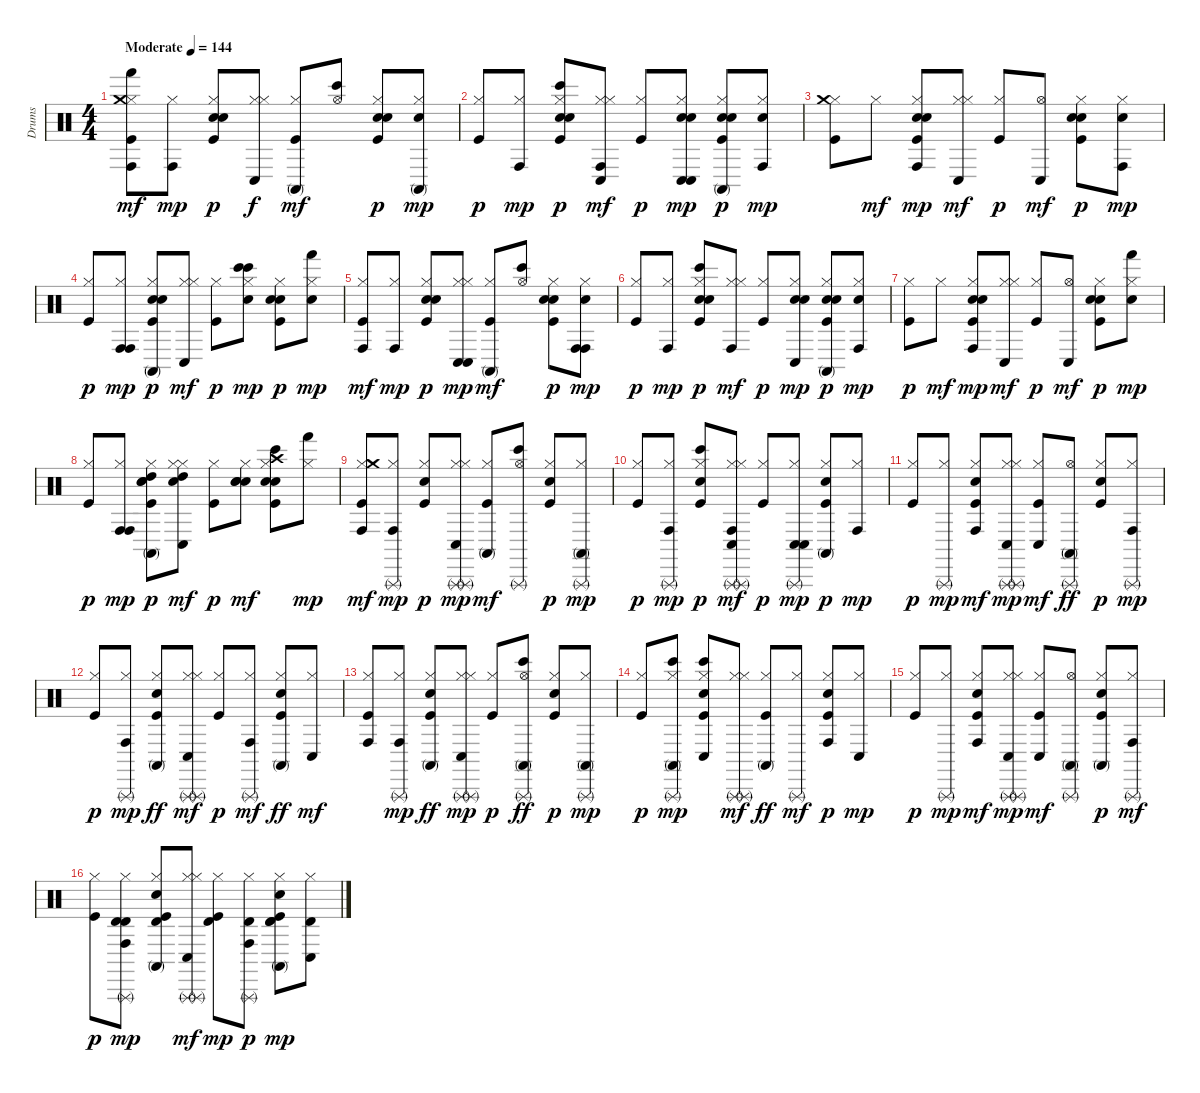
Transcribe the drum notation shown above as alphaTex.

\track ("Drums" "Drums") {instrument percussion}
\staff {score}
\articulation defaults
\ts (4 4)
\tempo (144 "Moderate")
\clef neutral
\ks c
("Hand (hit)" "Kick (hit)" "Hi-Hat (closed)" "Crash medium (hit)" "Conga high (hit)").8{dy mf} ("Hi-Hat (closed)" "Conga high (hit)").8{dy mp} ("Kick (hit)" "Snare (hit) 2" "Hand Clap (hit)" "Hi-Hat (closed)").8{dy p} ("Hi-Hat (closed)" "Conga low (hit)" "Hi-Hat (closed)").8{dy f} ("Kick (hit)" "Hi-Hat (closed)" "Conga high (mute)").8{dy mf} ("Hi-Hat (open)" "Bongo High (hit)").8 ("Kick (hit)" "Snare (hit) 2" "Hand Clap (hit)" "Hi-Hat (closed)").8{dy p} ("Hand Clap (hit)" "Hi-Hat (closed)" "Conga high (mute)").8{dy mp} |
("Kick (hit)" "Hi-Hat (closed)").8{dy p} ("Hi-Hat (closed)" "Conga high (hit)").8{dy mp} ("Kick (hit)" "Snare (hit) 2" "Hand Clap (hit)" "Hi-Hat (closed)" "Bongo High (hit)").8{dy p} ("Hi-Hat (closed)" "Conga high (hit)" "Hi-Hat (closed)" "Conga low (hit)").8{dy mf} ("Kick (hit)" "Hi-Hat (closed)").8{dy p} ("Hand Clap (hit)" "Hi-Hat (closed)" "Conga low (hit)" "Hand Clap (hit)" "Conga low (hit)").8{dy mp} ("Kick (hit)" "Snare (hit) 2" "Hand Clap (hit)" "Hi-Hat (closed)" "Conga high (mute)").8{dy p} ("Hand Clap (hit)" "Hi-Hat (closed)" "Conga high (hit)").8{dy mp} |
("Kick (hit)" "Hi-Hat (closed)" "Crash medium (hit)").8 "Hi-Hat (closed)".8{dy mf} ("Kick (hit)" "Snare (hit) 2" "Hand Clap (hit)" "Hi-Hat (closed)" "Conga high (hit)").8{dy mp} ("Hi-Hat (closed)" "Conga low (hit)" "Hi-Hat (closed)").8{dy mf} ("Kick (hit)" "Hi-Hat (closed)").8{dy p} ("Hi-Hat (open)" "Conga low (hit)").8{dy mf} ("Kick (hit)" "Snare (hit) 2" "Hand Clap (hit)" "Hi-Hat (closed)").8{dy p} ("Hand Clap (hit)" "Hi-Hat (closed)" "Conga high (hit)").8{dy mp} |
("Kick (hit)" "Hi-Hat (closed)").8{dy p} ("Hi-Hat (closed)" "Conga high (hit)" "Conga high (hit)").8{dy mp} ("Kick (hit)" "Snare (hit) 2" "Hand Clap (hit)" "Hi-Hat (closed)" "Conga high (mute)").8{dy p} ("Hi-Hat (closed)" "Conga low (hit)" "Hi-Hat (closed)").8{dy mf} ("Kick (hit)" "Hi-Hat (closed)").8{dy p} ("Hand Clap (hit)" "Hi-Hat (closed)" "Bongo High (hit)" "Bongo High (hit)").8{dy mp} ("Kick (hit)" "Snare (hit) 2" "Hand Clap (hit)" "Hi-Hat (closed)").8{dy p} ("Hand Clap (hit)" "Hi-Hat (closed)" "Hand (hit)").8{dy mp} |
("Kick (hit)" "Hi-Hat (closed)" "Conga high (hit)").8{dy mf} ("Hi-Hat (closed)" "Conga high (hit)").8{dy mp} ("Kick (hit)" "Snare (hit) 2" "Hand Clap (hit)" "Hi-Hat (closed)").8{dy p} ("Hi-Hat (closed)" "Conga low (hit)" "Hi-Hat (closed)" "Conga low (hit)").8{dy mp} ("Kick (hit)" "Hi-Hat (closed)" "Conga high (mute)").8{dy mf} ("Hi-Hat (open)" "Bongo High (hit)").8 ("Kick (hit)" "Snare (hit) 2" "Hand Clap (hit)" "Hi-Hat (closed)").8{dy p} ("Hand Clap (hit)" "Hi-Hat (closed)" "Conga high (hit)" "Conga high (hit)").8{dy mp} |
("Kick (hit)" "Hi-Hat (closed)").8{dy p} ("Hi-Hat (closed)" "Conga high (hit)").8{dy mp} ("Kick (hit)" "Snare (hit) 2" "Hand Clap (hit)" "Hi-Hat (closed)" "Bongo High (hit)").8{dy p} ("Hi-Hat (closed)" "Conga high (hit)" "Hi-Hat (closed)").8{dy mf} ("Kick (hit)" "Hi-Hat (closed)").8{dy p} ("Hand Clap (hit)" "Hi-Hat (closed)" "Conga low (hit)" "Hand Clap (hit)").8{dy mp} ("Kick (hit)" "Snare (hit) 2" "Hand Clap (hit)" "Hi-Hat (closed)" "Conga high (mute)").8{dy p} ("Hand Clap (hit)" "Hi-Hat (closed)" "Conga high (hit)").8{dy mp} |
("Kick (hit)" "Hi-Hat (closed)").8{dy p} "Hi-Hat (closed)".8{dy mf} ("Kick (hit)" "Snare (hit) 2" "Hand Clap (hit)" "Hi-Hat (closed)" "Conga high (hit)").8{dy mp} ("Hi-Hat (closed)" "Conga low (hit)" "Hi-Hat (closed)").8{dy mf} ("Kick (hit)" "Hi-Hat (closed)").8{dy p} ("Hi-Hat (open)" "Conga low (hit)").8{dy mf} ("Kick (hit)" "Snare (hit) 2" "Hand Clap (hit)" "Hi-Hat (closed)").8{dy p} ("Hand Clap (hit)" "Hi-Hat (closed)" "Hand (hit)").8{dy mp} |
("Kick (hit)" "Hi-Hat (closed)").8{dy p} ("Hi-Hat (closed)" "Conga high (hit)" "Conga high (hit)").8{dy mp} ("Kick (hit)" "Snare (hit) 2" "Hand Clap (hit)" "Hi-Hat (closed)" "Conga high (mute)" "High Tom (hit)").8{dy p} ("Hi-Hat (closed)" "High Tom (hit)" "Conga low (hit)" "Electric Snare (hit)" "Hi-Hat (closed)").8{dy mf} ("Kick (hit)" "Hi-Hat (closed)").8{dy p} ("Hand Clap (hit)" "Electric Snare (hit)" "Hi-Hat (closed)" "Electric Snare (hit)").8{dy mf} ("Kick (hit)" "Snare (hit) 2" "Hand Clap (hit)" "Hi-Hat (closed)" "Crash high (hit)" "Bongo High (hit)").8 ("Hi-Hat (closed)" "Hand (hit)").8{dy mp} |
("Kick (hit)" "Hi-Hat (closed)" "Crash medium (hit)" "Conga high (hit)").8{dy mf} ("Hi-Hat (closed)" "Conga high (hit)" "Triangle (rnute)").8{dy mp} ("Kick (hit)" "Snare (hit) 2" "Hi-Hat (closed)").8{dy p} ("Hi-Hat (closed)" "Conga low (hit)" "Triangle (rnute)" "Hi-Hat (closed)" "Triangle (rnute)").8{dy mp} ("Kick (hit)" "Hi-Hat (closed)" "Conga high (mute)").8{dy mf} ("Hi-Hat (open)" "Bongo High (hit)" "Triangle (rnute)").8 ("Kick (hit)" "Snare (hit) 2" "Hi-Hat (closed)").8{dy p} ("Hi-Hat (closed)" "Conga high (mute)" "Triangle (rnute)").8{dy mp} |
("Kick (hit)" "Hi-Hat (closed)").8{dy p} ("Hi-Hat (closed)" "Conga high (hit)" "Triangle (rnute)").8{dy mp} ("Kick (hit)" "Snare (hit) 2" "Hi-Hat (closed)" "Bongo High (hit)").8{dy p} ("Hi-Hat (closed)" "Conga high (hit)" "Triangle (rnute)" "Hi-Hat (closed)" "Conga low (hit)" "Triangle (rnute)").8{dy mf} ("Kick (hit)" "Hi-Hat (closed)").8{dy p} ("Hi-Hat (closed)" "Conga low (hit)" "Triangle (rnute)" "Conga low (hit)").8{dy mp} ("Kick (hit)" "Snare (hit) 2" "Hi-Hat (closed)" "Conga high (mute)").8{dy p} ("Hi-Hat (closed)" "Conga high (hit)").8{dy mp} |
("Kick (hit)" "Hi-Hat (closed)").8{dy p} ("Hi-Hat (closed)" "Triangle (rnute)").8{dy mp} ("Kick (hit)" "Snare (hit) 2" "Hi-Hat (closed)" "Conga high (hit)").8{dy mf} ("Hi-Hat (closed)" "Conga low (hit)" "Triangle (rnute)" "Hi-Hat (closed)" "Triangle (rnute)").8{dy mp} ("Kick (hit)" "Hi-Hat (closed)" "Conga low (hit)").8{dy mf} ("Hi-Hat (open)" "Conga high (mute)" "Triangle (rnute)").8{dy ff} ("Kick (hit)" "Snare (hit) 2" "Hi-Hat (closed)").8{dy p} ("Hi-Hat (closed)" "Conga high (hit)" "Triangle (rnute)").8{dy mp} |
("Kick (hit)" "Hi-Hat (closed)").8{dy p} ("Hi-Hat (closed)" "Conga high (hit)" "Triangle (rnute)").8{dy mp} ("Kick (hit)" "Snare (hit) 2" "Hi-Hat (closed)" "Conga high (mute)").8{dy ff} ("Hi-Hat (closed)" "Conga low (hit)" "Triangle (rnute)" "Hi-Hat (closed)" "Triangle (rnute)").8{dy mf} ("Kick (hit)" "Hi-Hat (closed)").8{dy p} ("Hi-Hat (closed)" "Conga high (hit)" "Triangle (rnute)").8{dy mf} ("Kick (hit)" "Snare (hit) 2" "Hi-Hat (closed)" "Conga high (mute)").8{dy ff} ("Hi-Hat (closed)" "Conga low (hit)").8{dy mf} |
("Kick (hit)" "Hi-Hat (closed)" "Conga high (hit)").8 ("Hi-Hat (closed)" "Conga high (hit)" "Triangle (rnute)").8{dy mp} ("Kick (hit)" "Snare (hit) 2" "Hi-Hat (closed)" "Conga high (mute)").8{dy ff} ("Hi-Hat (closed)" "Conga low (hit)" "Triangle (rnute)" "Hi-Hat (closed)" "Triangle (rnute)").8{dy mp} ("Kick (hit)" "Hi-Hat (closed)").8{dy p} ("Hi-Hat (open)" "Bongo High (hit)" "Conga high (mute)" "Triangle (rnute)").8{dy ff} ("Kick (hit)" "Snare (hit) 2" "Hi-Hat (closed)").8{dy p} ("Hi-Hat (closed)" "Conga high (mute)" "Triangle (rnute)").8{dy mp} |
("Kick (hit)" "Hi-Hat (closed)").8{dy p} ("Hi-Hat (closed)" "Bongo High (hit)" "Conga high (mute)" "Triangle (rnute)").8{dy mp} ("Kick (hit)" "Snare (hit) 2" "Hi-Hat (closed)" "Bongo High (hit)" "Conga low (hit)").8 ("Hi-Hat (closed)" "Triangle (rnute)" "Hi-Hat (closed)" "Triangle (rnute)").8{dy mf} ("Kick (hit)" "Hi-Hat (closed)" "Conga high (mute)").8{dy ff} ("Hi-Hat (closed)" "Triangle (rnute)").8{dy mf} ("Kick (hit)" "Snare (hit) 2" "Hi-Hat (closed)" "Conga high (hit)").8{dy p} ("Hi-Hat (closed)" "Conga low (hit)").8{dy mp} |
("Kick (hit)" "Hi-Hat (closed)").8{dy p} ("Hi-Hat (closed)" "Triangle (rnute)").8{dy mp} ("Kick (hit)" "Snare (hit) 2" "Hi-Hat (closed)" "Conga high (hit)").8{dy mf} ("Hi-Hat (closed)" "Conga low (hit)" "Triangle (rnute)" "Hi-Hat (closed)" "Triangle (rnute)").8{dy mp} ("Kick (hit)" "Hi-Hat (closed)" "Conga low (hit)").8{dy mf} ("Hi-Hat (open)" "Conga high (mute)" "Triangle (rnute)").8 ("Kick (hit)" "Snare (hit) 2" "Hi-Hat (closed)" "Conga high (mute)").8{dy p} ("Hi-Hat (closed)" "Conga high (hit)" "Triangle (rnute)").8{dy mf} |
("Kick (hit)" "Hi-Hat (closed)").8{dy p} ("Timbale high (hit)" "Hi-Hat (closed)" "Conga high (hit)" "Timbale high (hit)" "Triangle (rnute)").8{dy mp} ("Kick (hit)" "Snare (hit) 2" "Hi-Hat (closed)" "Conga high (mute)" "Timbale high (hit)").8 ("Hi-Hat (closed)" "Conga low (hit)" "Triangle (rnute)" "Hi-Hat (closed)" "Triangle (rnute)").8{dy mf} ("Kick (hit)" "Hi-Hat (closed)" "Timbale high (hit)").8{dy mp} ("Hi-Hat (closed)" "Conga high (hit)" "Timbale high (hit)" "Triangle (rnute)").8{dy p} ("Kick (hit)" "Snare (hit) 2" "Hi-Hat (closed)" "Conga high (mute)" "Timbale high (hit)" "Timbale high (hit)").8{dy mp} ("Hi-Hat (closed)" "Conga low (hit)" "Timbale high (hit)").8
